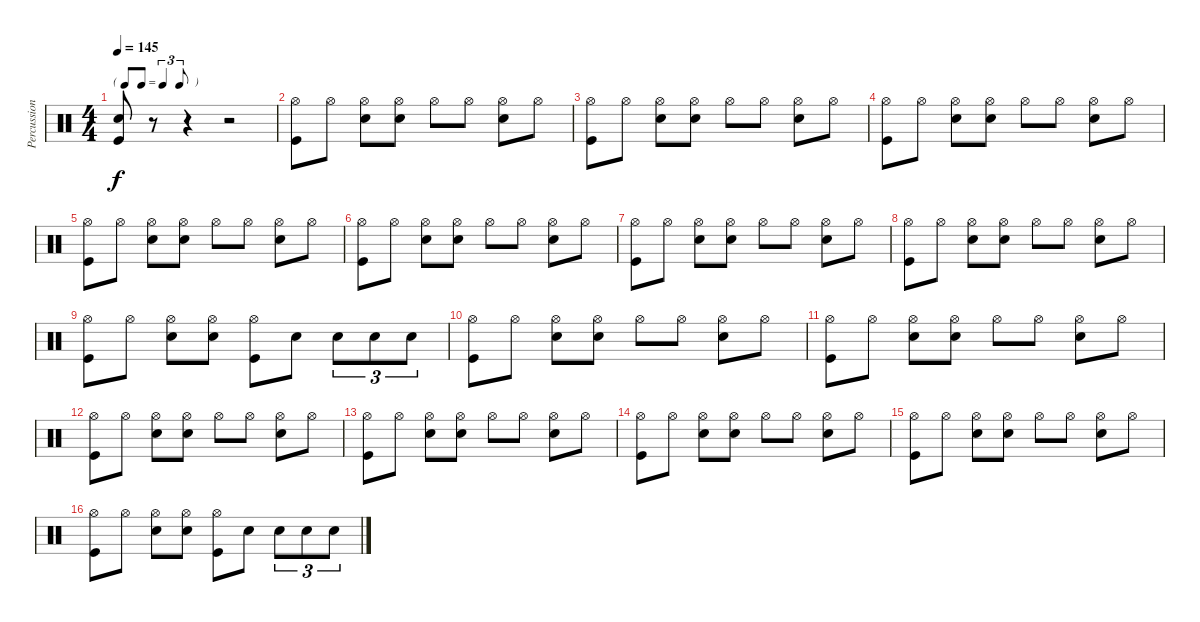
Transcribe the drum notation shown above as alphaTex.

\track ("Percussion" "Percussion") {instrument percussion}
\staff {score}
\articulation defaults
\ts (4 4)
\tf triplet8th
\tempo 145
\clef neutral
\ks c
("Snare (hit) 2" "Kick (hit)").8{dy f} r.8 r.4 r.2 |
("Hi-Hat (open)" "Kick (hit)").8 "Hi-Hat (open)".8 ("Hi-Hat (open)" "Snare (hit) 2").8 ("Hi-Hat (open)" "Snare (hit) 2").8 "Hi-Hat (open)".8 "Hi-Hat (open)".8 ("Hi-Hat (open)" "Snare (hit) 2").8 "Hi-Hat (open)".8 |
("Hi-Hat (open)" "Kick (hit)").8 "Hi-Hat (open)".8 ("Hi-Hat (open)" "Snare (hit) 2").8 ("Hi-Hat (open)" "Snare (hit) 2").8 "Hi-Hat (open)".8 "Hi-Hat (open)".8 ("Hi-Hat (open)" "Snare (hit) 2").8 "Hi-Hat (open)".8 |
("Hi-Hat (open)" "Kick (hit)").8 "Hi-Hat (open)".8 ("Hi-Hat (open)" "Snare (hit) 2").8 ("Hi-Hat (open)" "Snare (hit) 2").8 "Hi-Hat (open)".8 "Hi-Hat (open)".8 ("Hi-Hat (open)" "Snare (hit) 2").8 "Hi-Hat (open)".8 |
("Hi-Hat (open)" "Kick (hit)").8 "Hi-Hat (open)".8 ("Hi-Hat (open)" "Snare (hit) 2").8 ("Hi-Hat (open)" "Snare (hit) 2").8 "Hi-Hat (open)".8 "Hi-Hat (open)".8 ("Hi-Hat (open)" "Snare (hit) 2").8 "Hi-Hat (open)".8 |
("Hi-Hat (open)" "Kick (hit)").8 "Hi-Hat (open)".8 ("Hi-Hat (open)" "Snare (hit) 2").8 ("Hi-Hat (open)" "Snare (hit) 2").8 "Hi-Hat (open)".8 "Hi-Hat (open)".8 ("Hi-Hat (open)" "Snare (hit) 2").8 "Hi-Hat (open)".8 |
("Hi-Hat (open)" "Kick (hit)").8 "Hi-Hat (open)".8 ("Hi-Hat (open)" "Snare (hit) 2").8 ("Hi-Hat (open)" "Snare (hit) 2").8 "Hi-Hat (open)".8 "Hi-Hat (open)".8 ("Hi-Hat (open)" "Snare (hit) 2").8 "Hi-Hat (open)".8 |
("Hi-Hat (open)" "Kick (hit)").8 "Hi-Hat (open)".8 ("Hi-Hat (open)" "Snare (hit) 2").8 ("Hi-Hat (open)" "Snare (hit) 2").8 "Hi-Hat (open)".8 "Hi-Hat (open)".8 ("Hi-Hat (open)" "Snare (hit) 2").8 "Hi-Hat (open)".8 |
("Hi-Hat (open)" "Kick (hit)").8 "Hi-Hat (open)".8 ("Hi-Hat (open)" "Snare (hit) 2").8 ("Hi-Hat (open)" "Snare (hit) 2").8 ("Hi-Hat (open)" "Kick (hit)").8 "Snare (hit) 2".8 "Snare (hit) 2".8{tu (3 2)} "Snare (hit) 2".8{tu (3 2)} "Snare (hit) 2".8{tu (3 2)} |
("Hi-Hat (open)" "Kick (hit)").8 "Hi-Hat (open)".8 ("Hi-Hat (open)" "Snare (hit) 2").8 ("Hi-Hat (open)" "Snare (hit) 2").8 "Hi-Hat (open)".8 "Hi-Hat (open)".8 ("Hi-Hat (open)" "Snare (hit) 2").8 "Hi-Hat (open)".8 |
("Hi-Hat (open)" "Kick (hit)").8 "Hi-Hat (open)".8 ("Hi-Hat (open)" "Snare (hit) 2").8 ("Hi-Hat (open)" "Snare (hit) 2").8 "Hi-Hat (open)".8 "Hi-Hat (open)".8 ("Hi-Hat (open)" "Snare (hit) 2").8 "Hi-Hat (open)".8 |
("Hi-Hat (open)" "Kick (hit)").8 "Hi-Hat (open)".8 ("Hi-Hat (open)" "Snare (hit) 2").8 ("Hi-Hat (open)" "Snare (hit) 2").8 "Hi-Hat (open)".8 "Hi-Hat (open)".8 ("Hi-Hat (open)" "Snare (hit) 2").8 "Hi-Hat (open)".8 |
("Hi-Hat (open)" "Kick (hit)").8 "Hi-Hat (open)".8 ("Hi-Hat (open)" "Snare (hit) 2").8 ("Hi-Hat (open)" "Snare (hit) 2").8 "Hi-Hat (open)".8 "Hi-Hat (open)".8 ("Hi-Hat (open)" "Snare (hit) 2").8 "Hi-Hat (open)".8 |
("Hi-Hat (open)" "Kick (hit)").8 "Hi-Hat (open)".8 ("Hi-Hat (open)" "Snare (hit) 2").8 ("Hi-Hat (open)" "Snare (hit) 2").8 "Hi-Hat (open)".8 "Hi-Hat (open)".8 ("Hi-Hat (open)" "Snare (hit) 2").8 "Hi-Hat (open)".8 |
("Hi-Hat (open)" "Kick (hit)").8 "Hi-Hat (open)".8 ("Hi-Hat (open)" "Snare (hit) 2").8 ("Hi-Hat (open)" "Snare (hit) 2").8 "Hi-Hat (open)".8 "Hi-Hat (open)".8 ("Hi-Hat (open)" "Snare (hit) 2").8 "Hi-Hat (open)".8 |
("Hi-Hat (open)" "Kick (hit)").8 "Hi-Hat (open)".8 ("Hi-Hat (open)" "Snare (hit) 2").8 ("Hi-Hat (open)" "Snare (hit) 2").8 ("Hi-Hat (open)" "Kick (hit)").8 "Snare (hit) 2".8 "Snare (hit) 2".8{tu (3 2)} "Snare (hit) 2".8{tu (3 2)} "Snare (hit) 2".8{tu (3 2)}
